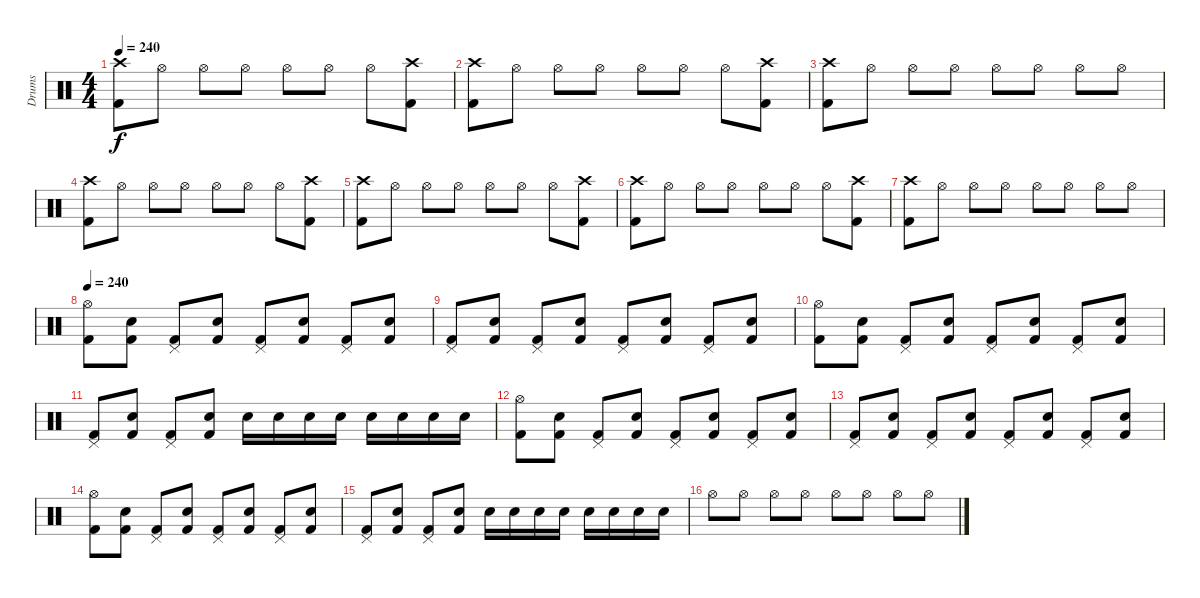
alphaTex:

\track ("Drums" "Drums") {instrument percussion}
\staff {score}
\articulation defaults
\ts (4 4)
\tempo 240
\clef neutral
\ks c
("Crash high (hit)" "Kick (hit) 2").8{dy f} "Hi-Hat (open)".8 "Hi-Hat (open)".8 "Hi-Hat (open)".8 "Hi-Hat (open)".8 "Hi-Hat (open)".8 "Hi-Hat (open)".8 ("Crash high (hit)" "Kick (hit) 2").8 |
("Crash high (hit)" "Kick (hit) 2").8 "Hi-Hat (open)".8 "Hi-Hat (open)".8 "Hi-Hat (open)".8 "Hi-Hat (open)".8 "Hi-Hat (open)".8 "Hi-Hat (open)".8 ("Crash high (hit)" "Kick (hit) 2").8 |
("Crash high (hit)" "Kick (hit) 2").8 "Hi-Hat (open)".8 "Hi-Hat (open)".8 "Hi-Hat (open)".8 "Hi-Hat (open)".8 "Hi-Hat (open)".8 "Hi-Hat (open)".8 "Hi-Hat (open)".8 |
("Crash high (hit)" "Kick (hit) 2").8 "Hi-Hat (open)".8 "Hi-Hat (open)".8 "Hi-Hat (open)".8 "Hi-Hat (open)".8 "Hi-Hat (open)".8 "Hi-Hat (open)".8 ("Crash high (hit)" "Kick (hit) 2").8 |
("Crash high (hit)" "Kick (hit) 2").8 "Hi-Hat (open)".8 "Hi-Hat (open)".8 "Hi-Hat (open)".8 "Hi-Hat (open)".8 "Hi-Hat (open)".8 "Hi-Hat (open)".8 ("Crash high (hit)" "Kick (hit) 2").8 |
("Crash high (hit)" "Kick (hit) 2").8 "Hi-Hat (open)".8 "Hi-Hat (open)".8 "Hi-Hat (open)".8 "Hi-Hat (open)".8 "Hi-Hat (open)".8 "Hi-Hat (open)".8 ("Crash high (hit)" "Kick (hit) 2").8 |
("Crash high (hit)" "Kick (hit) 2").8 "Hi-Hat (open)".8 "Hi-Hat (open)".8 "Hi-Hat (open)".8 "Hi-Hat (open)".8 "Hi-Hat (open)".8 "Hi-Hat (open)".8 "Hi-Hat (open)".8 |
\tempo 240
("Hi-Hat (open)" "Kick (hit) 2").8 ("Snare (hit) 2" "Kick (hit) 2").8 ("Pedal Hi-Hat (hit)" "Kick (hit) 2").8 ("Snare (hit) 2" "Kick (hit) 2").8 ("Pedal Hi-Hat (hit)" "Kick (hit) 2").8 ("Snare (hit) 2" "Kick (hit) 2").8 ("Pedal Hi-Hat (hit)" "Kick (hit) 2").8 ("Snare (hit) 2" "Kick (hit) 2").8 |
("Pedal Hi-Hat (hit)" "Kick (hit) 2").8 ("Snare (hit) 2" "Kick (hit) 2").8 ("Pedal Hi-Hat (hit)" "Kick (hit) 2").8 ("Snare (hit) 2" "Kick (hit) 2").8 ("Pedal Hi-Hat (hit)" "Kick (hit) 2").8 ("Snare (hit) 2" "Kick (hit) 2").8 ("Pedal Hi-Hat (hit)" "Kick (hit) 2").8 ("Snare (hit) 2" "Kick (hit) 2").8 |
("Hi-Hat (open)" "Kick (hit) 2").8 ("Snare (hit) 2" "Kick (hit) 2").8 ("Pedal Hi-Hat (hit)" "Kick (hit) 2").8 ("Snare (hit) 2" "Kick (hit) 2").8 ("Pedal Hi-Hat (hit)" "Kick (hit) 2").8 ("Snare (hit) 2" "Kick (hit) 2").8 ("Pedal Hi-Hat (hit)" "Kick (hit) 2").8 ("Snare (hit) 2" "Kick (hit) 2").8 |
("Pedal Hi-Hat (hit)" "Kick (hit) 2").8 ("Snare (hit) 2" "Kick (hit) 2").8 ("Pedal Hi-Hat (hit)" "Kick (hit) 2").8 ("Snare (hit) 2" "Kick (hit) 2").8 "Snare (hit) 2".16 "Snare (hit) 2".16 "Snare (hit) 2".16 "Snare (hit) 2".16 "Snare (hit) 2".16 "Snare (hit) 2".16 "Snare (hit) 2".16 "Snare (hit) 2".16 |
("Hi-Hat (open)" "Kick (hit) 2").8 ("Snare (hit) 2" "Kick (hit) 2").8 ("Pedal Hi-Hat (hit)" "Kick (hit) 2").8 ("Snare (hit) 2" "Kick (hit) 2").8 ("Pedal Hi-Hat (hit)" "Kick (hit) 2").8 ("Snare (hit) 2" "Kick (hit) 2").8 ("Pedal Hi-Hat (hit)" "Kick (hit) 2").8 ("Snare (hit) 2" "Kick (hit) 2").8 |
("Pedal Hi-Hat (hit)" "Kick (hit) 2").8 ("Snare (hit) 2" "Kick (hit) 2").8 ("Pedal Hi-Hat (hit)" "Kick (hit) 2").8 ("Snare (hit) 2" "Kick (hit) 2").8 ("Pedal Hi-Hat (hit)" "Kick (hit) 2").8 ("Snare (hit) 2" "Kick (hit) 2").8 ("Pedal Hi-Hat (hit)" "Kick (hit) 2").8 ("Snare (hit) 2" "Kick (hit) 2").8 |
("Hi-Hat (open)" "Kick (hit) 2").8 ("Snare (hit) 2" "Kick (hit) 2").8 ("Pedal Hi-Hat (hit)" "Kick (hit) 2").8 ("Snare (hit) 2" "Kick (hit) 2").8 ("Pedal Hi-Hat (hit)" "Kick (hit) 2").8 ("Snare (hit) 2" "Kick (hit) 2").8 ("Pedal Hi-Hat (hit)" "Kick (hit) 2").8 ("Snare (hit) 2" "Kick (hit) 2").8 |
("Pedal Hi-Hat (hit)" "Kick (hit) 2").8 ("Snare (hit) 2" "Kick (hit) 2").8 ("Pedal Hi-Hat (hit)" "Kick (hit) 2").8 ("Snare (hit) 2" "Kick (hit) 2").8 "Snare (hit) 2".16 "Snare (hit) 2".16 "Snare (hit) 2".16 "Snare (hit) 2".16 "Snare (hit) 2".16 "Snare (hit) 2".16 "Snare (hit) 2".16 "Snare (hit) 2".16 |
"Hi-Hat (open)".8 "Hi-Hat (open)".8 "Hi-Hat (open)".8 "Hi-Hat (open)".8 "Hi-Hat (open)".8 "Hi-Hat (open)".8 "Hi-Hat (open)".8 "Hi-Hat (open)".8
